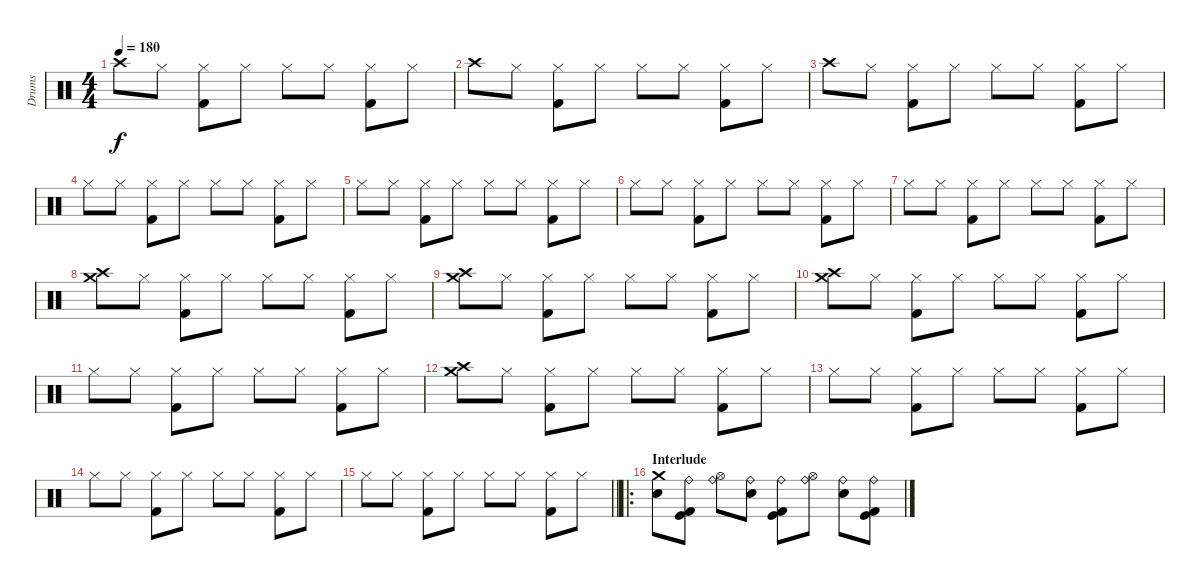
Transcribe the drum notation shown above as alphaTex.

\track ("Drums" "Drums") {instrument percussion}
\staff {score}
\articulation defaults
\ts (4 4)
\tempo 180
\clef neutral
\ks c "Crash high (hit)".8{dy f} "Hi-Hat (closed)".8
("Hi-Hat (closed)" "Kick (hit) 2").8 "Hi-Hat (closed)".8 "Hi-Hat (closed)".8 "Hi-Hat (closed)".8 ("Hi-Hat (closed)" "Kick (hit) 2").8 "Hi-Hat (closed)".8 |
"Crash high (hit)".8 "Hi-Hat (closed)".8 ("Hi-Hat (closed)" "Kick (hit) 2").8 "Hi-Hat (closed)".8 "Hi-Hat (closed)".8 "Hi-Hat (closed)".8 ("Hi-Hat (closed)" "Kick (hit) 2").8 "Hi-Hat (closed)".8 |
"Crash high (hit)".8 "Hi-Hat (closed)".8 ("Hi-Hat (closed)" "Kick (hit) 2").8 "Hi-Hat (closed)".8 "Hi-Hat (closed)".8 "Hi-Hat (closed)".8 ("Hi-Hat (closed)" "Kick (hit) 2").8 "Hi-Hat (closed)".8 |
"Hi-Hat (closed)".8 "Hi-Hat (closed)".8 ("Hi-Hat (closed)" "Kick (hit) 2").8 "Hi-Hat (closed)".8 "Hi-Hat (closed)".8 "Hi-Hat (closed)".8 ("Hi-Hat (closed)" "Kick (hit) 2").8 "Hi-Hat (closed)".8 |
"Hi-Hat (closed)".8 "Hi-Hat (closed)".8 ("Hi-Hat (closed)" "Kick (hit) 2").8 "Hi-Hat (closed)".8 "Hi-Hat (closed)".8 "Hi-Hat (closed)".8 ("Hi-Hat (closed)" "Kick (hit) 2").8 "Hi-Hat (closed)".8 |
"Hi-Hat (closed)".8 "Hi-Hat (closed)".8 ("Hi-Hat (closed)" "Kick (hit) 2").8 "Hi-Hat (closed)".8 "Hi-Hat (closed)".8 "Hi-Hat (closed)".8 ("Hi-Hat (closed)" "Kick (hit) 2").8 "Hi-Hat (closed)".8 |
"Hi-Hat (closed)".8 "Hi-Hat (closed)".8 ("Hi-Hat (closed)" "Kick (hit) 2").8 "Hi-Hat (closed)".8 "Hi-Hat (closed)".8 "Hi-Hat (closed)".8 ("Hi-Hat (closed)" "Kick (hit) 2").8 "Hi-Hat (closed)".8 |
("Crash high (hit)" "Crash medium (hit)").8 "Hi-Hat (closed)".8 ("Hi-Hat (closed)" "Kick (hit) 2").8 "Hi-Hat (closed)".8 "Hi-Hat (closed)".8 "Hi-Hat (closed)".8 ("Hi-Hat (closed)" "Kick (hit) 2").8 "Hi-Hat (closed)".8 |
("Crash high (hit)" "Crash medium (hit)").8 "Hi-Hat (closed)".8 ("Hi-Hat (closed)" "Kick (hit) 2").8 "Hi-Hat (closed)".8 "Hi-Hat (closed)".8 "Hi-Hat (closed)".8 ("Hi-Hat (closed)" "Kick (hit) 2").8 "Hi-Hat (closed)".8 |
("Crash high (hit)" "Crash medium (hit)").8 "Hi-Hat (closed)".8 ("Hi-Hat (closed)" "Kick (hit) 2").8 "Hi-Hat (closed)".8 "Hi-Hat (closed)".8 "Hi-Hat (closed)".8 ("Hi-Hat (closed)" "Kick (hit) 2").8 "Hi-Hat (closed)".8 |
"Hi-Hat (closed)".8 "Hi-Hat (closed)".8 ("Hi-Hat (closed)" "Kick (hit) 2").8 "Hi-Hat (closed)".8 "Hi-Hat (closed)".8 "Hi-Hat (closed)".8 ("Hi-Hat (closed)" "Kick (hit) 2").8 "Hi-Hat (closed)".8 |
("Crash high (hit)" "Crash medium (hit)").8 "Hi-Hat (closed)".8 ("Hi-Hat (closed)" "Kick (hit) 2").8 "Hi-Hat (closed)".8 "Hi-Hat (closed)".8 "Hi-Hat (closed)".8 ("Hi-Hat (closed)" "Kick (hit) 2").8 "Hi-Hat (closed)".8 |
"Hi-Hat (closed)".8 "Hi-Hat (closed)".8 ("Hi-Hat (closed)" "Kick (hit) 2").8 "Hi-Hat (closed)".8 "Hi-Hat (closed)".8 "Hi-Hat (closed)".8 ("Hi-Hat (closed)" "Kick (hit) 2").8 "Hi-Hat (closed)".8 |
"Hi-Hat (closed)".8 "Hi-Hat (closed)".8 ("Hi-Hat (closed)" "Kick (hit) 2").8 "Hi-Hat (closed)".8 "Hi-Hat (closed)".8 "Hi-Hat (closed)".8 ("Hi-Hat (closed)" "Kick (hit) 2").8 "Hi-Hat (closed)".8 |
\barLineRight lightlight "Hi-Hat (closed)".8 "Hi-Hat (closed)".8
("Hi-Hat (closed)" "Kick (hit) 2").8 "Hi-Hat (closed)".8 "Hi-Hat (closed)".8 "Hi-Hat (closed)".8 ("Hi-Hat (closed)" "Kick (hit) 2").8 "Hi-Hat (closed)".8 |
\ro
\section ("" "Interlude")
("Crash medium (hit)" "Electric Snare (hit)").8 ("Kick (hit) 2" "Ride (bell)" "Kick (hit)").8 ("Hi-Hat (open)" "Ride (bell)").8 ("Electric Snare (hit)" "Ride (bell)").8 ("Kick (hit) 2" "Ride (bell)" "Kick (hit)").8 ("Hi-Hat (open)" "Ride (bell)").8 ("Electric Snare (hit)" "Ride (bell)").8 ("Kick (hit) 2" "Ride (bell)" "Kick (hit)").8
